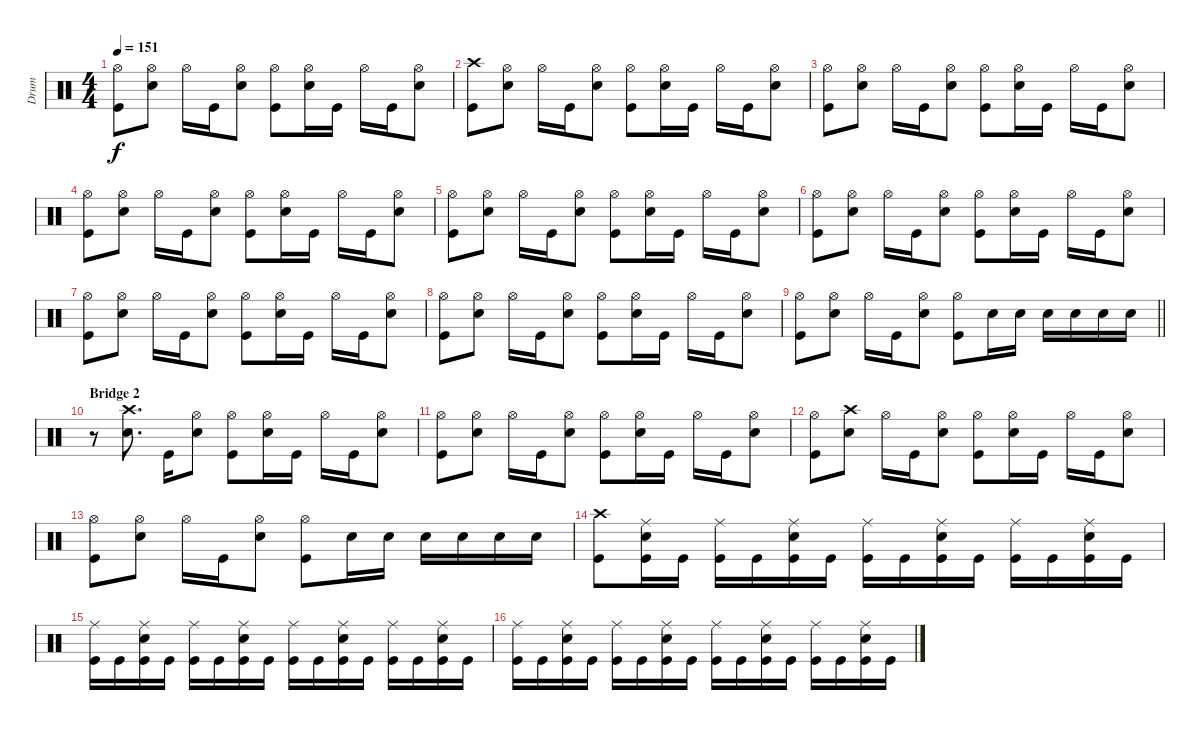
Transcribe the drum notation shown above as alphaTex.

\track ("Drum" "Drum") {instrument percussion}
\staff {score}
\articulation defaults
\ts (4 4)
\tempo 151
\clef neutral
\ks c
("Hi-Hat (open)" "Kick (hit)").8{dy f} ("Hi-Hat (open)" "Snare (hit) 2").8 "Hi-Hat (open)".16 "Kick (hit)".16 ("Hi-Hat (open)" "Snare (hit) 2").8 ("Hi-Hat (open)" "Kick (hit)").8 ("Hi-Hat (open)" "Snare (hit) 2").16 "Kick (hit)".16 "Hi-Hat (open)".16 "Kick (hit)".16 ("Hi-Hat (open)" "Snare (hit) 2").8 |
("Crash high (hit)" "Kick (hit)").8 ("Hi-Hat (open)" "Snare (hit) 2").8 "Hi-Hat (open)".16 "Kick (hit)".16 ("Hi-Hat (open)" "Snare (hit) 2").8 ("Hi-Hat (open)" "Kick (hit)").8 ("Hi-Hat (open)" "Snare (hit) 2").16 "Kick (hit)".16 "Hi-Hat (open)".16 "Kick (hit)".16 ("Hi-Hat (open)" "Snare (hit) 2").8 |
("Hi-Hat (open)" "Kick (hit)").8 ("Hi-Hat (open)" "Snare (hit) 2").8 "Hi-Hat (open)".16 "Kick (hit)".16 ("Hi-Hat (open)" "Snare (hit) 2").8 ("Hi-Hat (open)" "Kick (hit)").8 ("Hi-Hat (open)" "Snare (hit) 2").16 "Kick (hit)".16 "Hi-Hat (open)".16 "Kick (hit)".16 ("Hi-Hat (open)" "Snare (hit) 2").8 |
("Hi-Hat (open)" "Kick (hit)").8 ("Hi-Hat (open)" "Snare (hit) 2").8 "Hi-Hat (open)".16 "Kick (hit)".16 ("Hi-Hat (open)" "Snare (hit) 2").8 ("Hi-Hat (open)" "Kick (hit)").8 ("Hi-Hat (open)" "Snare (hit) 2").16 "Kick (hit)".16 "Hi-Hat (open)".16 "Kick (hit)".16 ("Hi-Hat (open)" "Snare (hit) 2").8 |
("Hi-Hat (open)" "Kick (hit)").8 ("Hi-Hat (open)" "Snare (hit) 2").8 "Hi-Hat (open)".16 "Kick (hit)".16 ("Hi-Hat (open)" "Snare (hit) 2").8 ("Hi-Hat (open)" "Kick (hit)").8 ("Hi-Hat (open)" "Snare (hit) 2").16 "Kick (hit)".16 "Hi-Hat (open)".16 "Kick (hit)".16 ("Hi-Hat (open)" "Snare (hit) 2").8 |
("Hi-Hat (open)" "Kick (hit)").8 ("Hi-Hat (open)" "Snare (hit) 2").8 "Hi-Hat (open)".16 "Kick (hit)".16 ("Hi-Hat (open)" "Snare (hit) 2").8 ("Hi-Hat (open)" "Kick (hit)").8 ("Hi-Hat (open)" "Snare (hit) 2").16 "Kick (hit)".16 "Hi-Hat (open)".16 "Kick (hit)".16 ("Hi-Hat (open)" "Snare (hit) 2").8 |
("Hi-Hat (open)" "Kick (hit)").8 ("Hi-Hat (open)" "Snare (hit) 2").8 "Hi-Hat (open)".16 "Kick (hit)".16 ("Hi-Hat (open)" "Snare (hit) 2").8 ("Hi-Hat (open)" "Kick (hit)").8 ("Hi-Hat (open)" "Snare (hit) 2").16 "Kick (hit)".16 "Hi-Hat (open)".16 "Kick (hit)".16 ("Hi-Hat (open)" "Snare (hit) 2").8 |
("Hi-Hat (open)" "Kick (hit)").8 ("Hi-Hat (open)" "Snare (hit) 2").8 "Hi-Hat (open)".16 "Kick (hit)".16 ("Hi-Hat (open)" "Snare (hit) 2").8 ("Hi-Hat (open)" "Kick (hit)").8 ("Hi-Hat (open)" "Snare (hit) 2").16 "Kick (hit)".16 "Hi-Hat (open)".16 "Kick (hit)".16 ("Hi-Hat (open)" "Snare (hit) 2").8 |
\barLineRight lightlight
("Hi-Hat (open)" "Kick (hit)").8 ("Hi-Hat (open)" "Snare (hit) 2").8 "Hi-Hat (open)".16 "Kick (hit)".16 ("Hi-Hat (open)" "Snare (hit) 2").8 ("Hi-Hat (open)" "Kick (hit)").8 "Snare (hit) 2".16 "Snare (hit) 2".16 "Snare (hit) 2".16 "Snare (hit) 2".16 "Snare (hit) 2".16 "Snare (hit) 2".16 |
\section ("" "Bridge 2")
r.8 ("Crash high (hit)" "Snare (hit) 2").8{d} "Kick (hit)".16 ("Hi-Hat (open)" "Snare (hit) 2").8 ("Hi-Hat (open)" "Kick (hit)").8 ("Hi-Hat (open)" "Snare (hit) 2").16 "Kick (hit)".16 "Hi-Hat (open)".16 "Kick (hit)".16 ("Hi-Hat (open)" "Snare (hit) 2").8 |
("Hi-Hat (open)" "Kick (hit)").8 ("Hi-Hat (open)" "Snare (hit) 2").8 "Hi-Hat (open)".16 "Kick (hit)".16 ("Hi-Hat (open)" "Snare (hit) 2").8 ("Hi-Hat (open)" "Kick (hit)").8 ("Hi-Hat (open)" "Snare (hit) 2").16 "Kick (hit)".16 "Hi-Hat (open)".16 "Kick (hit)".16 ("Hi-Hat (open)" "Snare (hit) 2").8 |
("Hi-Hat (open)" "Kick (hit)").8 ("Crash high (hit)" "Snare (hit) 2").8 "Hi-Hat (open)".16 "Kick (hit)".16 ("Hi-Hat (open)" "Snare (hit) 2").8 ("Hi-Hat (open)" "Kick (hit)").8 ("Hi-Hat (open)" "Snare (hit) 2").16 "Kick (hit)".16 "Hi-Hat (open)".16 "Kick (hit)".16 ("Hi-Hat (open)" "Snare (hit) 2").8 |
("Hi-Hat (open)" "Kick (hit)").8 ("Hi-Hat (open)" "Snare (hit) 2").8 "Hi-Hat (open)".16 "Kick (hit)".16 ("Hi-Hat (open)" "Snare (hit) 2").8 ("Hi-Hat (open)" "Kick (hit)").8 "Snare (hit) 2".16 "Snare (hit) 2".16 "Snare (hit) 2".16 "Snare (hit) 2".16 "Snare (hit) 2".16 "Snare (hit) 2".16 |
("Crash high (hit)" "Kick (hit)").8 ("Ride (middle)" "Kick (hit)" "Snare (hit) 2").16 "Kick (hit)".16 ("Ride (middle)" "Kick (hit)").16 "Kick (hit)".16 ("Ride (middle)" "Kick (hit)" "Snare (hit) 2").16 "Kick (hit)".16 ("Ride (middle)" "Kick (hit)").16 "Kick (hit)".16 ("Ride (middle)" "Kick (hit)" "Snare (hit) 2").16 "Kick (hit)".16 ("Ride (middle)" "Kick (hit)").16 "Kick (hit)".16 ("Ride (middle)" "Kick (hit)" "Snare (hit) 2").16 "Kick (hit)".16 |
("Ride (middle)" "Kick (hit)").16 "Kick (hit)".16 ("Ride (middle)" "Kick (hit)" "Snare (hit) 2").16 "Kick (hit)".16 ("Ride (middle)" "Kick (hit)").16 "Kick (hit)".16 ("Ride (middle)" "Kick (hit)" "Snare (hit) 2").16 "Kick (hit)".16 ("Ride (middle)" "Kick (hit)").16 "Kick (hit)".16 ("Ride (middle)" "Kick (hit)" "Snare (hit) 2").16 "Kick (hit)".16 ("Ride (middle)" "Kick (hit)").16 "Kick (hit)".16 ("Ride (middle)" "Kick (hit)" "Snare (hit) 2").16 "Kick (hit)".16 |
("Ride (middle)" "Kick (hit)").16 "Kick (hit)".16 ("Ride (middle)" "Kick (hit)" "Snare (hit) 2").16 "Kick (hit)".16 ("Ride (middle)" "Kick (hit)").16 "Kick (hit)".16 ("Ride (middle)" "Kick (hit)" "Snare (hit) 2").16 "Kick (hit)".16 ("Ride (middle)" "Kick (hit)").16 "Kick (hit)".16 ("Ride (middle)" "Kick (hit)" "Snare (hit) 2").16 "Kick (hit)".16 ("Ride (middle)" "Kick (hit)").16 "Kick (hit)".16 ("Ride (middle)" "Kick (hit)" "Snare (hit) 2").16 "Kick (hit)".16
